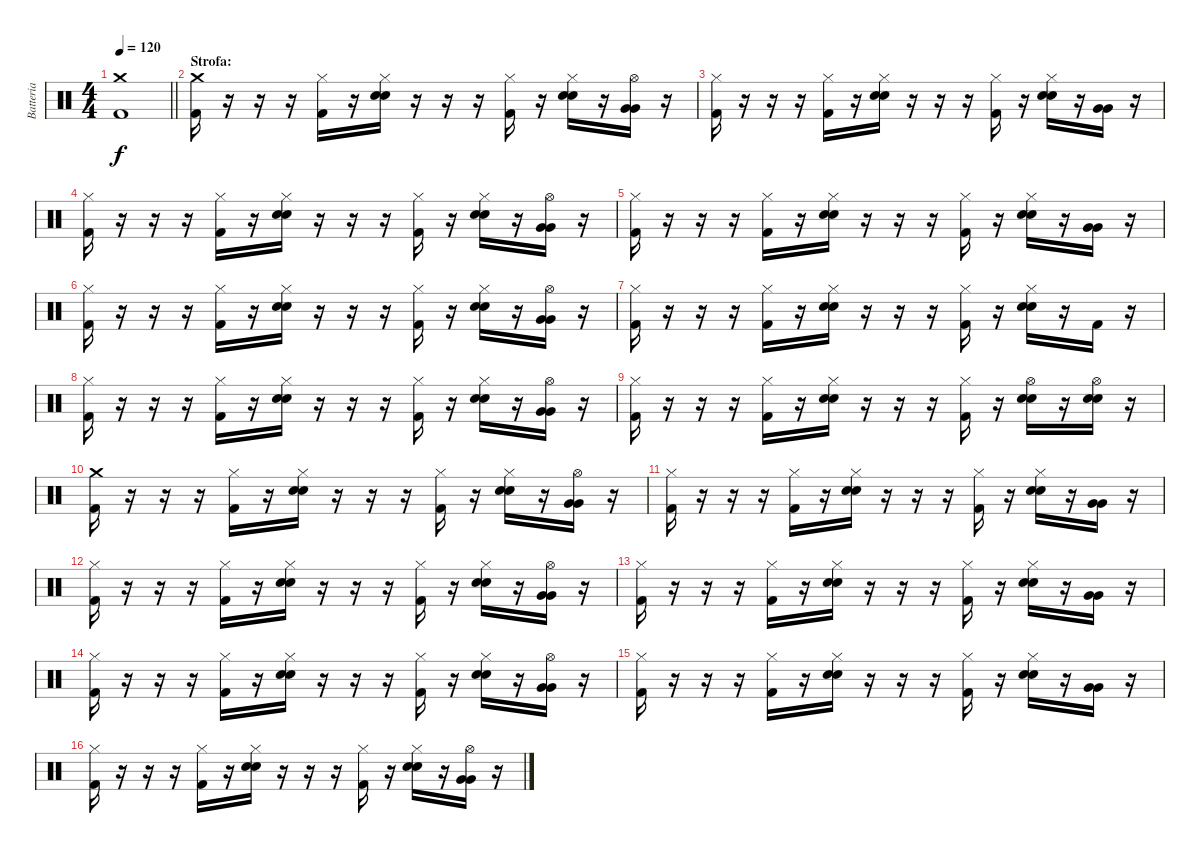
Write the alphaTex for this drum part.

\track ("Batteria" "Batteria") {instrument percussion}
\staff {score}
\articulation defaults
\ts (4 4)
\tempo 120
\clef neutral
\barLineRight lightlight
\ks c
("Kick (hit) 2" "Crash medium (hit)").1{dy f} |
\section ("" "Strofa:")
("Kick (hit) 2" "Crash medium (hit)").16 r.16 r.16 r.16 ("Kick (hit) 2" "Hi-Hat (closed)").16 r.16 ("Snare (hit) 2" "Snare (hit) 2" "Hi-Hat (closed)").16 r.16 r.16 r.16 ("Kick (hit) 2" "Hi-Hat (closed)").16 r.16 ("Snare (hit) 2" "Snare (hit) 2" "Hi-Hat (closed)").16 r.16 ("Very Low Tom (hit)" "Very Low Tom (hit)" "Hi-Hat (open)").16 r.16 |
("Kick (hit) 2" "Hi-Hat (closed)").16 r.16 r.16 r.16 ("Kick (hit) 2" "Hi-Hat (closed)").16 r.16 ("Snare (hit) 2" "Snare (hit) 2" "Hi-Hat (closed)").16 r.16 r.16 r.16 ("Kick (hit) 2" "Hi-Hat (closed)").16 r.16 ("Snare (hit) 2" "Snare (hit) 2" "Hi-Hat (closed)").16 r.16 ("Very Low Tom (hit)" "Very Low Tom (hit)").16 r.16 |
("Kick (hit) 2" "Hi-Hat (closed)").16 r.16 r.16 r.16 ("Kick (hit) 2" "Hi-Hat (closed)").16 r.16 ("Snare (hit) 2" "Snare (hit) 2" "Hi-Hat (closed)").16 r.16 r.16 r.16 ("Kick (hit) 2" "Hi-Hat (closed)").16 r.16 ("Snare (hit) 2" "Snare (hit) 2" "Hi-Hat (closed)").16 r.16 ("Very Low Tom (hit)" "Very Low Tom (hit)" "Hi-Hat (open)").16 r.16 |
("Kick (hit) 2" "Hi-Hat (closed)").16 r.16 r.16 r.16 ("Kick (hit) 2" "Hi-Hat (closed)").16 r.16 ("Snare (hit) 2" "Snare (hit) 2" "Hi-Hat (closed)").16 r.16 r.16 r.16 ("Kick (hit) 2" "Hi-Hat (closed)").16 r.16 ("Snare (hit) 2" "Snare (hit) 2" "Hi-Hat (closed)").16 r.16 ("Very Low Tom (hit)" "Very Low Tom (hit)").16 r.16 |
("Kick (hit) 2" "Hi-Hat (closed)").16 r.16 r.16 r.16 ("Kick (hit) 2" "Hi-Hat (closed)").16 r.16 ("Snare (hit) 2" "Snare (hit) 2" "Hi-Hat (closed)").16 r.16 r.16 r.16 ("Kick (hit) 2" "Hi-Hat (closed)").16 r.16 ("Snare (hit) 2" "Snare (hit) 2" "Hi-Hat (closed)").16 r.16 ("Very Low Tom (hit)" "Very Low Tom (hit)" "Hi-Hat (open)").16 r.16 |
("Kick (hit) 2" "Hi-Hat (closed)").16 r.16 r.16 r.16 ("Kick (hit) 2" "Hi-Hat (closed)").16 r.16 ("Snare (hit) 2" "Snare (hit) 2" "Hi-Hat (closed)").16 r.16 r.16 r.16 ("Kick (hit) 2" "Hi-Hat (closed)").16 r.16 ("Snare (hit) 2" "Snare (hit) 2" "Hi-Hat (closed)").16 r.16 "Kick (hit) 2".16 r.16 |
("Kick (hit) 2" "Hi-Hat (closed)").16 r.16 r.16 r.16 ("Kick (hit) 2" "Hi-Hat (closed)").16 r.16 ("Snare (hit) 2" "Snare (hit) 2" "Hi-Hat (closed)").16 r.16 r.16 r.16 ("Kick (hit) 2" "Hi-Hat (closed)").16 r.16 ("Snare (hit) 2" "Snare (hit) 2" "Hi-Hat (closed)").16 r.16 ("Very Low Tom (hit)" "Very Low Tom (hit)" "Hi-Hat (open)").16 r.16 |
("Kick (hit) 2" "Hi-Hat (closed)").16 r.16 r.16 r.16 ("Kick (hit) 2" "Hi-Hat (closed)").16 r.16 ("Snare (hit) 2" "Snare (hit) 2" "Hi-Hat (closed)").16 r.16 r.16 r.16 ("Kick (hit) 2" "Hi-Hat (closed)").16 r.16 ("Snare (hit) 2" "Snare (hit) 2" "Hi-Hat (open)").16 r.16 ("Snare (hit) 2" "Snare (hit) 2" "Hi-Hat (open)").16 r.16 |
("Kick (hit) 2" "Crash medium (hit)").16 r.16 r.16 r.16 ("Kick (hit) 2" "Hi-Hat (closed)").16 r.16 ("Snare (hit) 2" "Snare (hit) 2" "Hi-Hat (closed)").16 r.16 r.16 r.16 ("Kick (hit) 2" "Hi-Hat (closed)").16 r.16 ("Snare (hit) 2" "Snare (hit) 2" "Hi-Hat (closed)").16 r.16 ("Very Low Tom (hit)" "Very Low Tom (hit)" "Hi-Hat (open)").16 r.16 |
("Kick (hit) 2" "Hi-Hat (closed)").16 r.16 r.16 r.16 ("Kick (hit) 2" "Hi-Hat (closed)").16 r.16 ("Snare (hit) 2" "Snare (hit) 2" "Hi-Hat (closed)").16 r.16 r.16 r.16 ("Kick (hit) 2" "Hi-Hat (closed)").16 r.16 ("Snare (hit) 2" "Snare (hit) 2" "Hi-Hat (closed)").16 r.16 ("Very Low Tom (hit)" "Very Low Tom (hit)").16 r.16 |
("Kick (hit) 2" "Hi-Hat (closed)").16 r.16 r.16 r.16 ("Kick (hit) 2" "Hi-Hat (closed)").16 r.16 ("Snare (hit) 2" "Snare (hit) 2" "Hi-Hat (closed)").16 r.16 r.16 r.16 ("Kick (hit) 2" "Hi-Hat (closed)").16 r.16 ("Snare (hit) 2" "Snare (hit) 2" "Hi-Hat (closed)").16 r.16 ("Very Low Tom (hit)" "Very Low Tom (hit)" "Hi-Hat (open)").16 r.16 |
("Kick (hit) 2" "Hi-Hat (closed)").16 r.16 r.16 r.16 ("Kick (hit) 2" "Hi-Hat (closed)").16 r.16 ("Snare (hit) 2" "Snare (hit) 2" "Hi-Hat (closed)").16 r.16 r.16 r.16 ("Kick (hit) 2" "Hi-Hat (closed)").16 r.16 ("Snare (hit) 2" "Snare (hit) 2" "Hi-Hat (closed)").16 r.16 ("Very Low Tom (hit)" "Very Low Tom (hit)").16 r.16 |
("Kick (hit) 2" "Hi-Hat (closed)").16 r.16 r.16 r.16 ("Kick (hit) 2" "Hi-Hat (closed)").16 r.16 ("Snare (hit) 2" "Snare (hit) 2" "Hi-Hat (closed)").16 r.16 r.16 r.16 ("Kick (hit) 2" "Hi-Hat (closed)").16 r.16 ("Snare (hit) 2" "Snare (hit) 2" "Hi-Hat (closed)").16 r.16 ("Very Low Tom (hit)" "Very Low Tom (hit)" "Hi-Hat (open)").16 r.16 |
("Kick (hit) 2" "Hi-Hat (closed)").16 r.16 r.16 r.16 ("Kick (hit) 2" "Hi-Hat (closed)").16 r.16 ("Snare (hit) 2" "Snare (hit) 2" "Hi-Hat (closed)").16 r.16 r.16 r.16 ("Kick (hit) 2" "Hi-Hat (closed)").16 r.16 ("Snare (hit) 2" "Snare (hit) 2" "Hi-Hat (closed)").16 r.16 ("Very Low Tom (hit)" "Very Low Tom (hit)").16 r.16 |
("Kick (hit) 2" "Hi-Hat (closed)").16 r.16 r.16 r.16 ("Kick (hit) 2" "Hi-Hat (closed)").16 r.16 ("Snare (hit) 2" "Snare (hit) 2" "Hi-Hat (closed)").16 r.16 r.16 r.16 ("Kick (hit) 2" "Hi-Hat (closed)").16 r.16 ("Snare (hit) 2" "Snare (hit) 2" "Hi-Hat (closed)").16 r.16 ("Very Low Tom (hit)" "Very Low Tom (hit)" "Hi-Hat (open)").16 r.16
